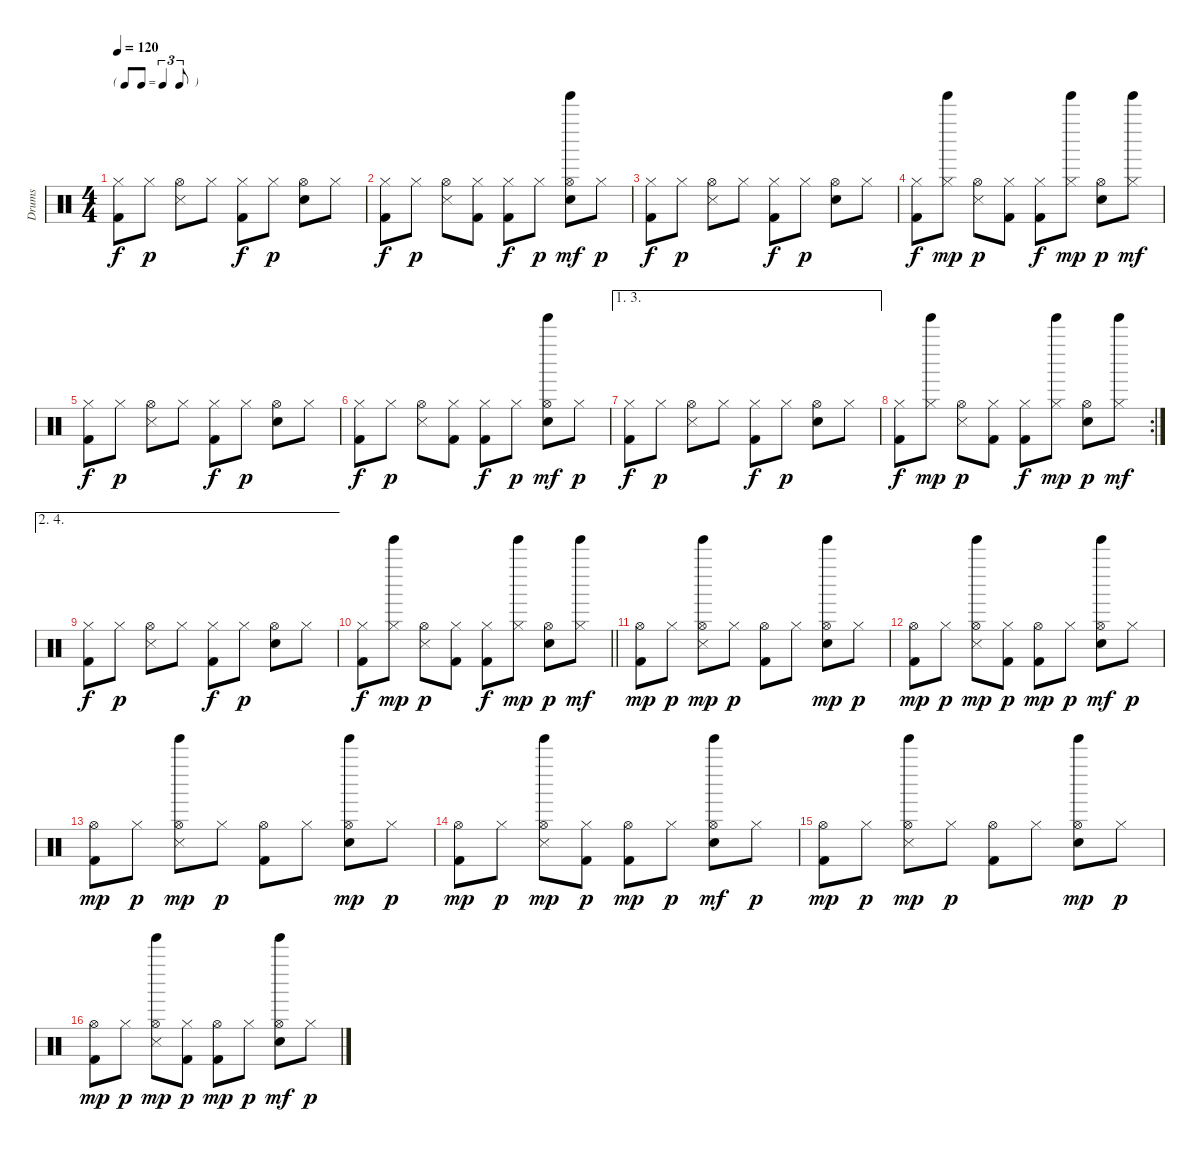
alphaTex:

\track ("Drums" "Drums") {instrument percussion}
\staff {score}
\articulation defaults
\ts (4 4)
\tf triplet8th
\tempo 120
\clef neutral
\ks c
("Hi-Hat (closed)" "Kick (hit) 2").8{dy f} "Hi-Hat (closed)".8{dy p} ("Hi-Hat (open)" "Snare (side stick) 3").8 "Hi-Hat (closed)".8 ("Hi-Hat (closed)" "Kick (hit) 2").8{dy f} "Hi-Hat (closed)".8{dy p} ("Hi-Hat (open)" "Snare (hit) 2").8 "Hi-Hat (closed)".8 |
("Hi-Hat (closed)" "Kick (hit) 2").8{dy f} "Hi-Hat (closed)".8{dy p} ("Hi-Hat (open)" "Snare (side stick) 3").8 ("Hi-Hat (closed)" "Kick (hit) 2").8 ("Hi-Hat (closed)" "Kick (hit) 2").8{dy f} "Hi-Hat (closed)".8{dy p} ("Hi-Hat (open)" "Snare (hit) 2" "Tinkle Bell (hit)").8{dy mf} "Hi-Hat (closed)".8{dy p} |
("Hi-Hat (closed)" "Kick (hit) 2").8{dy f} "Hi-Hat (closed)".8{dy p} ("Hi-Hat (open)" "Snare (side stick) 3").8 "Hi-Hat (closed)".8 ("Hi-Hat (closed)" "Kick (hit) 2").8{dy f} "Hi-Hat (closed)".8{dy p} ("Hi-Hat (open)" "Snare (hit) 2").8 "Hi-Hat (closed)".8 |
("Hi-Hat (closed)" "Kick (hit) 2").8{dy f} ("Hi-Hat (closed)" "Tinkle Bell (hit)").8{dy mp} ("Hi-Hat (open)" "Snare (side stick) 3").8{dy p} ("Hi-Hat (closed)" "Kick (hit) 2").8 ("Hi-Hat (closed)" "Kick (hit) 2").8{dy f} ("Hi-Hat (closed)" "Tinkle Bell (hit)").8{dy mp} ("Hi-Hat (open)" "Snare (hit) 2").8{dy p} ("Hi-Hat (closed)" "Tinkle Bell (hit)").8{dy mf} |
("Hi-Hat (closed)" "Kick (hit) 2").8{dy f} "Hi-Hat (closed)".8{dy p} ("Hi-Hat (open)" "Snare (side stick) 3").8 "Hi-Hat (closed)".8 ("Hi-Hat (closed)" "Kick (hit) 2").8{dy f} "Hi-Hat (closed)".8{dy p} ("Hi-Hat (open)" "Snare (hit) 2").8 "Hi-Hat (closed)".8 |
("Hi-Hat (closed)" "Kick (hit) 2").8{dy f} "Hi-Hat (closed)".8{dy p} ("Hi-Hat (open)" "Snare (side stick) 3").8 ("Hi-Hat (closed)" "Kick (hit) 2").8 ("Hi-Hat (closed)" "Kick (hit) 2").8{dy f} "Hi-Hat (closed)".8{dy p} ("Hi-Hat (open)" "Snare (hit) 2" "Tinkle Bell (hit)").8{dy mf} "Hi-Hat (closed)".8{dy p} |
\ae (1 3)
("Hi-Hat (closed)" "Kick (hit) 2").8{dy f} "Hi-Hat (closed)".8{dy p} ("Hi-Hat (open)" "Snare (side stick) 3").8 "Hi-Hat (closed)".8 ("Hi-Hat (closed)" "Kick (hit) 2").8{dy f} "Hi-Hat (closed)".8{dy p} ("Hi-Hat (open)" "Snare (hit) 2").8 "Hi-Hat (closed)".8 |
\rc 2
("Hi-Hat (closed)" "Kick (hit) 2").8{dy f} ("Hi-Hat (closed)" "Tinkle Bell (hit)").8{dy mp} ("Hi-Hat (open)" "Snare (side stick) 3").8{dy p} ("Hi-Hat (closed)" "Kick (hit) 2").8 ("Hi-Hat (closed)" "Kick (hit) 2").8{dy f} ("Hi-Hat (closed)" "Tinkle Bell (hit)").8{dy mp} ("Hi-Hat (open)" "Snare (hit) 2").8{dy p} ("Hi-Hat (closed)" "Tinkle Bell (hit)").8{dy mf} |
\ae (2 4)
("Hi-Hat (closed)" "Kick (hit) 2").8{dy f} "Hi-Hat (closed)".8{dy p} ("Hi-Hat (open)" "Snare (side stick) 3").8 "Hi-Hat (closed)".8 ("Hi-Hat (closed)" "Kick (hit) 2").8{dy f} "Hi-Hat (closed)".8{dy p} ("Hi-Hat (open)" "Snare (hit) 2").8 "Hi-Hat (closed)".8 |
\barLineRight lightlight
("Hi-Hat (closed)" "Kick (hit) 2").8{dy f} ("Hi-Hat (closed)" "Tinkle Bell (hit)").8{dy mp} ("Hi-Hat (open)" "Snare (side stick) 3").8{dy p} ("Hi-Hat (closed)" "Kick (hit) 2").8 ("Hi-Hat (closed)" "Kick (hit) 2").8{dy f} ("Hi-Hat (closed)" "Tinkle Bell (hit)").8{dy mp} ("Hi-Hat (open)" "Snare (hit) 2").8{dy p} ("Hi-Hat (closed)" "Tinkle Bell (hit)").8{dy mf} |
("Hi-Hat (open)" "Kick (hit) 2").8{dy mp} "Hi-Hat (closed)".8{dy p} ("Hi-Hat (open)" "Snare (side stick) 3" "Tinkle Bell (hit)").8{dy mp} "Hi-Hat (closed)".8{dy p} ("Hi-Hat (open)" "Kick (hit) 2").8 "Hi-Hat (closed)".8 ("Hi-Hat (open)" "Snare (hit) 2" "Tinkle Bell (hit)").8{dy mp} "Hi-Hat (closed)".8{dy p} |
("Hi-Hat (open)" "Kick (hit) 2").8{dy mp} "Hi-Hat (closed)".8{dy p} ("Hi-Hat (open)" "Snare (side stick) 3" "Tinkle Bell (hit)").8{dy mp} ("Hi-Hat (closed)" "Kick (hit) 2").8{dy p} ("Hi-Hat (open)" "Kick (hit) 2").8{dy mp} "Hi-Hat (closed)".8{dy p} ("Hi-Hat (open)" "Snare (hit) 2" "Tinkle Bell (hit)").8{dy mf} "Hi-Hat (closed)".8{dy p} |
("Hi-Hat (open)" "Kick (hit) 2").8{dy mp} "Hi-Hat (closed)".8{dy p} ("Hi-Hat (open)" "Snare (side stick) 3" "Tinkle Bell (hit)").8{dy mp} "Hi-Hat (closed)".8{dy p} ("Hi-Hat (open)" "Kick (hit) 2").8 "Hi-Hat (closed)".8 ("Hi-Hat (open)" "Snare (hit) 2" "Tinkle Bell (hit)").8{dy mp} "Hi-Hat (closed)".8{dy p} |
("Hi-Hat (open)" "Kick (hit) 2").8{dy mp} "Hi-Hat (closed)".8{dy p} ("Hi-Hat (open)" "Snare (side stick) 3" "Tinkle Bell (hit)").8{dy mp} ("Hi-Hat (closed)" "Kick (hit) 2").8{dy p} ("Hi-Hat (open)" "Kick (hit) 2").8{dy mp} "Hi-Hat (closed)".8{dy p} ("Hi-Hat (open)" "Snare (hit) 2" "Tinkle Bell (hit)").8{dy mf} "Hi-Hat (closed)".8{dy p} |
("Hi-Hat (open)" "Kick (hit) 2").8{dy mp} "Hi-Hat (closed)".8{dy p} ("Hi-Hat (open)" "Snare (side stick) 3" "Tinkle Bell (hit)").8{dy mp} "Hi-Hat (closed)".8{dy p} ("Hi-Hat (open)" "Kick (hit) 2").8 "Hi-Hat (closed)".8 ("Hi-Hat (open)" "Snare (hit) 2" "Tinkle Bell (hit)").8{dy mp} "Hi-Hat (closed)".8{dy p} |
("Hi-Hat (open)" "Kick (hit) 2").8{dy mp} "Hi-Hat (closed)".8{dy p} ("Hi-Hat (open)" "Snare (side stick) 3" "Tinkle Bell (hit)").8{dy mp} ("Hi-Hat (closed)" "Kick (hit) 2").8{dy p} ("Hi-Hat (open)" "Kick (hit) 2").8{dy mp} "Hi-Hat (closed)".8{dy p} ("Hi-Hat (open)" "Snare (hit) 2" "Tinkle Bell (hit)").8{dy mf} "Hi-Hat (closed)".8{dy p}
